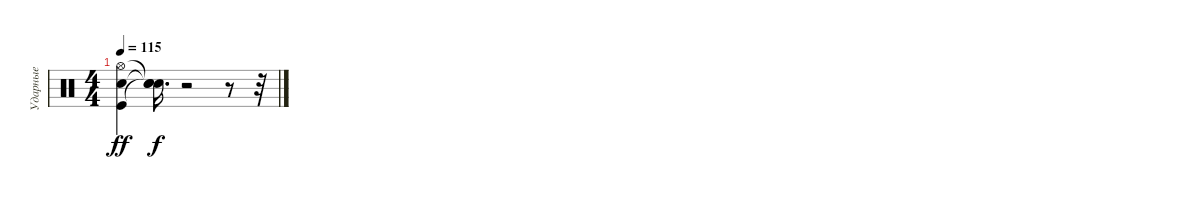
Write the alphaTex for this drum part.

\track ("Ударные" "Ударные") {instrument percussion}
\staff {score}
\articulation defaults
\ts (4 4)
\tempo 115
\clef neutral
\ks c
("Kick (hit)" "Electric Snare (hit)" "Hi-Hat (open)").4{dy ff} ("Snare (hit)"{t} "Snare (hit)"{t} "Snare (hit)"{t}).16{d dy f} r.2 r.8 r.32
